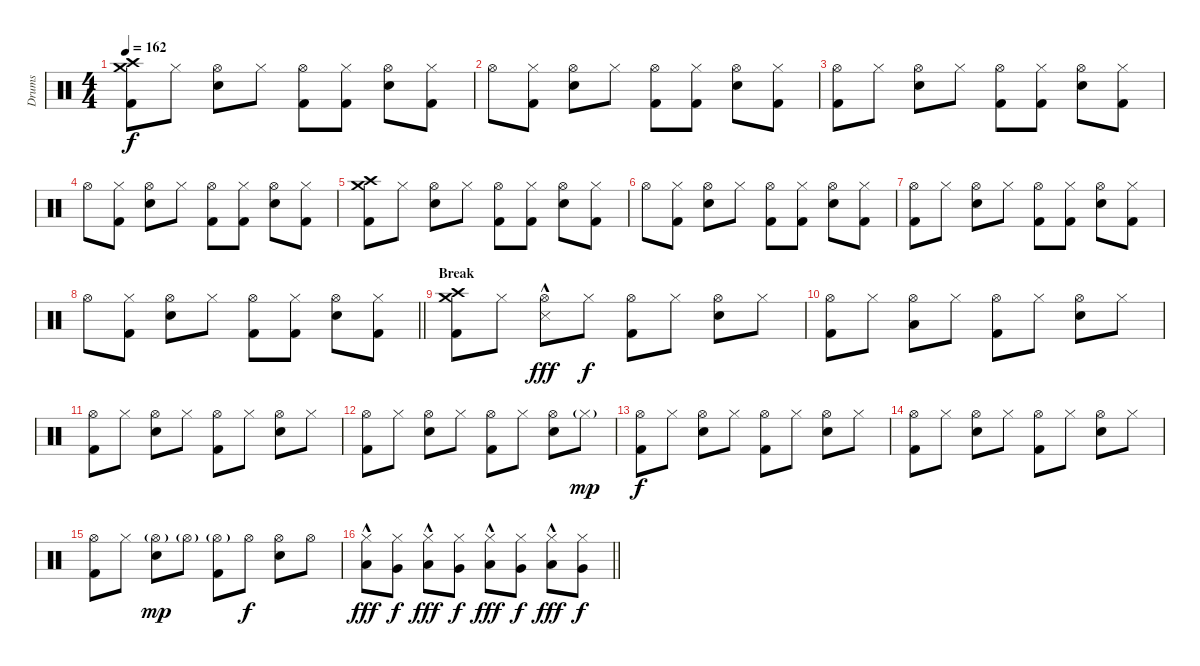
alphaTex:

\track ("Drums" "Drums") {instrument percussion}
\staff {score}
\articulation defaults
\ts (4 4)
\tempo 162
\clef neutral
\ks c
("Crash high (hit)" "Crash medium (hit)" "Kick (hit) 2").8{dy f} "Hi-Hat (closed)".8 ("Hi-Hat (open)" "Snare (hit) 2").8 "Hi-Hat (closed)".8 ("Hi-Hat (open)" "Kick (hit) 2").8 ("Hi-Hat (closed)" "Kick (hit) 2").8 ("Hi-Hat (open)" "Snare (hit) 2").8 ("Hi-Hat (closed)" "Kick (hit) 2").8 |
"Hi-Hat (open)".8 ("Hi-Hat (closed)" "Kick (hit) 2").8 ("Hi-Hat (open)" "Snare (hit) 2").8 "Hi-Hat (closed)".8 ("Hi-Hat (open)" "Kick (hit) 2").8 ("Hi-Hat (closed)" "Kick (hit) 2").8 ("Hi-Hat (open)" "Snare (hit) 2").8 ("Hi-Hat (closed)" "Kick (hit) 2").8 |
("Hi-Hat (open)" "Kick (hit) 2").8 "Hi-Hat (closed)".8 ("Hi-Hat (open)" "Snare (hit) 2").8 "Hi-Hat (closed)".8 ("Hi-Hat (open)" "Kick (hit) 2").8 ("Hi-Hat (closed)" "Kick (hit) 2").8 ("Hi-Hat (open)" "Snare (hit) 2").8 ("Hi-Hat (closed)" "Kick (hit) 2").8 |
"Hi-Hat (open)".8 ("Hi-Hat (closed)" "Kick (hit) 2").8 ("Hi-Hat (open)" "Snare (hit) 2").8 "Hi-Hat (closed)".8 ("Hi-Hat (open)" "Kick (hit) 2").8 ("Hi-Hat (closed)" "Kick (hit) 2").8 ("Hi-Hat (open)" "Snare (hit) 2").8 ("Hi-Hat (closed)" "Kick (hit) 2").8 |
("Crash high (hit)" "Crash medium (hit)" "Kick (hit) 2").8 "Hi-Hat (closed)".8 ("Hi-Hat (open)" "Snare (hit) 2").8 "Hi-Hat (closed)".8 ("Hi-Hat (open)" "Kick (hit) 2").8 ("Hi-Hat (closed)" "Kick (hit) 2").8 ("Hi-Hat (open)" "Snare (hit) 2").8 ("Hi-Hat (closed)" "Kick (hit) 2").8 |
"Hi-Hat (open)".8 ("Hi-Hat (closed)" "Kick (hit) 2").8 ("Hi-Hat (open)" "Snare (hit) 2").8 "Hi-Hat (closed)".8 ("Hi-Hat (open)" "Kick (hit) 2").8 ("Hi-Hat (closed)" "Kick (hit) 2").8 ("Hi-Hat (open)" "Snare (hit) 2").8 ("Hi-Hat (closed)" "Kick (hit) 2").8 |
("Hi-Hat (open)" "Kick (hit) 2").8 "Hi-Hat (closed)".8 ("Hi-Hat (open)" "Snare (hit) 2").8 "Hi-Hat (closed)".8 ("Hi-Hat (open)" "Kick (hit) 2").8 ("Hi-Hat (closed)" "Kick (hit) 2").8 ("Hi-Hat (open)" "Snare (hit) 2").8 ("Hi-Hat (closed)" "Kick (hit) 2").8 |
\barLineRight lightlight "Hi-Hat (open)".8
("Hi-Hat (closed)" "Kick (hit) 2").8 ("Hi-Hat (open)" "Snare (hit) 2").8 "Hi-Hat (closed)".8 ("Hi-Hat (open)" "Kick (hit) 2").8 ("Hi-Hat (closed)" "Kick (hit) 2").8 ("Hi-Hat (open)" "Snare (hit) 2").8 ("Hi-Hat (closed)" "Kick (hit) 2").8 |
\section ("" "Break")
("Crash high (hit)" "Crash medium (hit)" "Kick (hit) 2").8 "Hi-Hat (closed)".8 ("Hi-Hat (open)" "Snare (side stick) 3"{hac}).8{dy fff} "Hi-Hat (closed)".8{dy f} ("Hi-Hat (open)" "Kick (hit) 2").8 "Hi-Hat (closed)".8 ("Hi-Hat (open)" "Snare (hit) 2").8 "Hi-Hat (closed)".8 |
("Hi-Hat (open)" "Kick (hit) 2").8 "Hi-Hat (closed)".8 ("Hi-Hat (open)" "Low Tom (hit)").8 "Hi-Hat (closed)".8 ("Hi-Hat (open)" "Kick (hit) 2").8 "Hi-Hat (closed)".8 ("Hi-Hat (open)" "Snare (hit) 2").8 "Hi-Hat (closed)".8 |
("Hi-Hat (open)" "Kick (hit) 2").8 "Hi-Hat (closed)".8 ("Hi-Hat (open)" "Snare (hit) 2").8 "Hi-Hat (closed)".8 ("Hi-Hat (open)" "Kick (hit) 2").8 "Hi-Hat (closed)".8 ("Hi-Hat (open)" "Snare (hit) 2").8 "Hi-Hat (closed)".8 |
("Hi-Hat (open)" "Kick (hit) 2").8 "Hi-Hat (closed)".8 ("Hi-Hat (open)" "Snare (hit) 2").8 "Hi-Hat (closed)".8 ("Hi-Hat (open)" "Kick (hit) 2").8 "Hi-Hat (closed)".8 ("Hi-Hat (open)" "Snare (hit) 2").8 "Hi-Hat (closed)"{g}.8{dy mp} |
("Hi-Hat (open)" "Kick (hit) 2").8{dy f} "Hi-Hat (closed)".8 ("Hi-Hat (open)" "Snare (hit) 2").8 "Hi-Hat (closed)".8 ("Hi-Hat (open)" "Kick (hit) 2").8 "Hi-Hat (closed)".8 ("Hi-Hat (open)" "Snare (hit) 2").8 "Hi-Hat (closed)".8 |
("Hi-Hat (open)" "Kick (hit) 2").8 "Hi-Hat (closed)".8 ("Hi-Hat (open)" "Snare (hit) 2").8 "Hi-Hat (closed)".8 ("Hi-Hat (open)" "Kick (hit) 2").8 "Hi-Hat (closed)".8 ("Hi-Hat (open)" "Snare (hit) 2").8 "Hi-Hat (closed)".8 |
("Hi-Hat (open)" "Kick (hit) 2").8 "Hi-Hat (closed)".8 ("Hi-Hat (open)"{g} "Snare (hit) 2").8{dy mp} "Hi-Hat (open)"{g}.8 ("Hi-Hat (open)"{g} "Kick (hit) 2").8 "Hi-Hat (open)".8{dy f} ("Hi-Hat (open)" "Snare (hit) 2").8 "Hi-Hat (open)".8 |
\barLineRight lightlight
("Hi-Hat (closed)" "Low Tom (hit)"{hac}).8{dy fff} ("Hi-Hat (closed)" "Very Low Tom (hit)").8{dy f} ("Hi-Hat (closed)" "Low Tom (hit)"{hac}).8{dy fff} ("Hi-Hat (closed)" "Very Low Tom (hit)").8{dy f} ("Hi-Hat (closed)" "Low Tom (hit)"{hac}).8{dy fff} ("Hi-Hat (closed)" "Very Low Tom (hit)").8{dy f} ("Hi-Hat (closed)" "Low Tom (hit)"{hac}).8{dy fff} ("Hi-Hat (closed)" "Very Low Tom (hit)").8{dy f}
